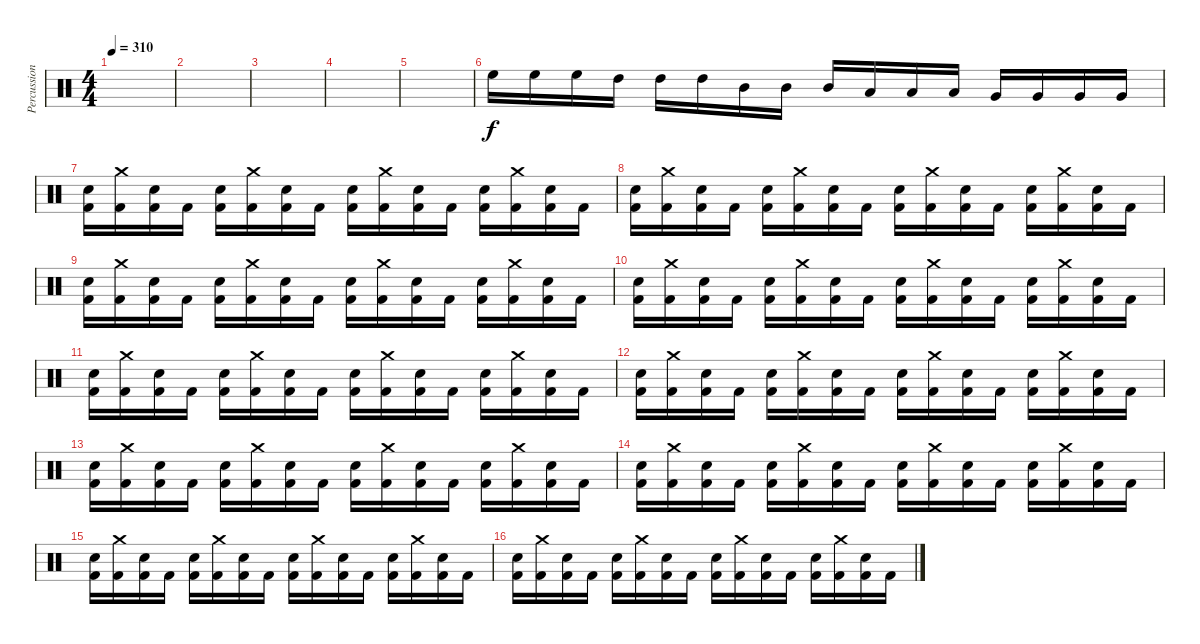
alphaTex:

\track ("Percussions" "Percussion") {instrument percussion}
\staff {score}
\articulation defaults
\ts (4 4)
\tempo 310
\clef neutral
\ks c
|
|
|
|
|
"High Floor Tom (hit)".16 "High Floor Tom (hit)".16 "High Floor Tom (hit)".16 "High Tom (hit)".16 "High Tom (hit)".16 "High Tom (hit)".16 "Mid Tom (hit)".16 "Mid Tom (hit)".16 "Mid Tom (hit)".16 "Low Tom (hit)".16 "Low Tom (hit)".16 "Low Tom (hit)".16 "Very Low Tom (hit)".16 "Very Low Tom (hit)".16 "Very Low Tom (hit)".16 "Very Low Tom (hit)".16 |
("Electric Snare (hit)" "Kick (hit) 2").16 ("Crash medium (hit)" "Kick (hit) 2").16 ("Electric Snare (hit)" "Kick (hit) 2").16 "Kick (hit) 2".16 ("Electric Snare (hit)" "Kick (hit) 2").16 ("Crash medium (hit)" "Kick (hit) 2").16 ("Electric Snare (hit)" "Kick (hit) 2").16 "Kick (hit) 2".16 ("Electric Snare (hit)" "Kick (hit) 2").16 ("Crash medium (hit)" "Kick (hit) 2").16 ("Electric Snare (hit)" "Kick (hit) 2").16 "Kick (hit) 2".16 ("Electric Snare (hit)" "Kick (hit) 2").16 ("Crash medium (hit)" "Kick (hit) 2").16 ("Electric Snare (hit)" "Kick (hit) 2").16 "Kick (hit) 2".16 |
("Electric Snare (hit)" "Kick (hit) 2").16 ("Crash medium (hit)" "Kick (hit) 2").16 ("Electric Snare (hit)" "Kick (hit) 2").16 "Kick (hit) 2".16 ("Electric Snare (hit)" "Kick (hit) 2").16 ("Crash medium (hit)" "Kick (hit) 2").16 ("Electric Snare (hit)" "Kick (hit) 2").16 "Kick (hit) 2".16 ("Electric Snare (hit)" "Kick (hit) 2").16 ("Crash medium (hit)" "Kick (hit) 2").16 ("Electric Snare (hit)" "Kick (hit) 2").16 "Kick (hit) 2".16 ("Electric Snare (hit)" "Kick (hit) 2").16 ("Crash medium (hit)" "Kick (hit) 2").16 ("Electric Snare (hit)" "Kick (hit) 2").16 "Kick (hit) 2".16 |
("Electric Snare (hit)" "Kick (hit) 2").16 ("Crash medium (hit)" "Kick (hit) 2").16 ("Electric Snare (hit)" "Kick (hit) 2").16 "Kick (hit) 2".16 ("Electric Snare (hit)" "Kick (hit) 2").16 ("Crash medium (hit)" "Kick (hit) 2").16 ("Electric Snare (hit)" "Kick (hit) 2").16 "Kick (hit) 2".16 ("Electric Snare (hit)" "Kick (hit) 2").16 ("Crash medium (hit)" "Kick (hit) 2").16 ("Electric Snare (hit)" "Kick (hit) 2").16 "Kick (hit) 2".16 ("Electric Snare (hit)" "Kick (hit) 2").16 ("Crash medium (hit)" "Kick (hit) 2").16 ("Electric Snare (hit)" "Kick (hit) 2").16 "Kick (hit) 2".16 |
("Electric Snare (hit)" "Kick (hit) 2").16 ("Crash medium (hit)" "Kick (hit) 2").16 ("Electric Snare (hit)" "Kick (hit) 2").16 "Kick (hit) 2".16 ("Electric Snare (hit)" "Kick (hit) 2").16 ("Crash medium (hit)" "Kick (hit) 2").16 ("Electric Snare (hit)" "Kick (hit) 2").16 "Kick (hit) 2".16 ("Electric Snare (hit)" "Kick (hit) 2").16 ("Crash medium (hit)" "Kick (hit) 2").16 ("Electric Snare (hit)" "Kick (hit) 2").16 "Kick (hit) 2".16 ("Electric Snare (hit)" "Kick (hit) 2").16 ("Crash medium (hit)" "Kick (hit) 2").16 ("Electric Snare (hit)" "Kick (hit) 2").16 "Kick (hit) 2".16 |
("Electric Snare (hit)" "Kick (hit) 2").16 ("Crash medium (hit)" "Kick (hit) 2").16 ("Electric Snare (hit)" "Kick (hit) 2").16 "Kick (hit) 2".16 ("Electric Snare (hit)" "Kick (hit) 2").16 ("Crash medium (hit)" "Kick (hit) 2").16 ("Electric Snare (hit)" "Kick (hit) 2").16 "Kick (hit) 2".16 ("Electric Snare (hit)" "Kick (hit) 2").16 ("Crash medium (hit)" "Kick (hit) 2").16 ("Electric Snare (hit)" "Kick (hit) 2").16 "Kick (hit) 2".16 ("Electric Snare (hit)" "Kick (hit) 2").16 ("Crash medium (hit)" "Kick (hit) 2").16 ("Electric Snare (hit)" "Kick (hit) 2").16 "Kick (hit) 2".16 |
("Electric Snare (hit)" "Kick (hit) 2").16 ("Crash medium (hit)" "Kick (hit) 2").16 ("Electric Snare (hit)" "Kick (hit) 2").16 "Kick (hit) 2".16 ("Electric Snare (hit)" "Kick (hit) 2").16 ("Crash medium (hit)" "Kick (hit) 2").16 ("Electric Snare (hit)" "Kick (hit) 2").16 "Kick (hit) 2".16 ("Electric Snare (hit)" "Kick (hit) 2").16 ("Crash medium (hit)" "Kick (hit) 2").16 ("Electric Snare (hit)" "Kick (hit) 2").16 "Kick (hit) 2".16 ("Electric Snare (hit)" "Kick (hit) 2").16 ("Crash medium (hit)" "Kick (hit) 2").16 ("Electric Snare (hit)" "Kick (hit) 2").16 "Kick (hit) 2".16 |
("Electric Snare (hit)" "Kick (hit) 2").16 ("Crash medium (hit)" "Kick (hit) 2").16 ("Electric Snare (hit)" "Kick (hit) 2").16 "Kick (hit) 2".16 ("Electric Snare (hit)" "Kick (hit) 2").16 ("Crash medium (hit)" "Kick (hit) 2").16 ("Electric Snare (hit)" "Kick (hit) 2").16 "Kick (hit) 2".16 ("Electric Snare (hit)" "Kick (hit) 2").16 ("Crash medium (hit)" "Kick (hit) 2").16 ("Electric Snare (hit)" "Kick (hit) 2").16 "Kick (hit) 2".16 ("Electric Snare (hit)" "Kick (hit) 2").16 ("Crash medium (hit)" "Kick (hit) 2").16 ("Electric Snare (hit)" "Kick (hit) 2").16 "Kick (hit) 2".16 |
("Electric Snare (hit)" "Kick (hit) 2").16 ("Crash medium (hit)" "Kick (hit) 2").16 ("Electric Snare (hit)" "Kick (hit) 2").16 "Kick (hit) 2".16 ("Electric Snare (hit)" "Kick (hit) 2").16 ("Crash medium (hit)" "Kick (hit) 2").16 ("Electric Snare (hit)" "Kick (hit) 2").16 "Kick (hit) 2".16 ("Electric Snare (hit)" "Kick (hit) 2").16 ("Crash medium (hit)" "Kick (hit) 2").16 ("Electric Snare (hit)" "Kick (hit) 2").16 "Kick (hit) 2".16 ("Electric Snare (hit)" "Kick (hit) 2").16 ("Crash medium (hit)" "Kick (hit) 2").16 ("Electric Snare (hit)" "Kick (hit) 2").16 "Kick (hit) 2".16 |
("Electric Snare (hit)" "Kick (hit) 2").16 ("Crash medium (hit)" "Kick (hit) 2").16 ("Electric Snare (hit)" "Kick (hit) 2").16 "Kick (hit) 2".16 ("Electric Snare (hit)" "Kick (hit) 2").16 ("Crash medium (hit)" "Kick (hit) 2").16 ("Electric Snare (hit)" "Kick (hit) 2").16 "Kick (hit) 2".16 ("Electric Snare (hit)" "Kick (hit) 2").16 ("Crash medium (hit)" "Kick (hit) 2").16 ("Electric Snare (hit)" "Kick (hit) 2").16 "Kick (hit) 2".16 ("Electric Snare (hit)" "Kick (hit) 2").16 ("Crash medium (hit)" "Kick (hit) 2").16 ("Electric Snare (hit)" "Kick (hit) 2").16 "Kick (hit) 2".16 |
("Electric Snare (hit)" "Kick (hit) 2").16 ("Crash medium (hit)" "Kick (hit) 2").16 ("Electric Snare (hit)" "Kick (hit) 2").16 "Kick (hit) 2".16 ("Electric Snare (hit)" "Kick (hit) 2").16 ("Crash medium (hit)" "Kick (hit) 2").16 ("Electric Snare (hit)" "Kick (hit) 2").16 "Kick (hit) 2".16 ("Electric Snare (hit)" "Kick (hit) 2").16 ("Crash medium (hit)" "Kick (hit) 2").16 ("Electric Snare (hit)" "Kick (hit) 2").16 "Kick (hit) 2".16 ("Electric Snare (hit)" "Kick (hit) 2").16 ("Crash medium (hit)" "Kick (hit) 2").16 ("Electric Snare (hit)" "Kick (hit) 2").16 "Kick (hit) 2".16
